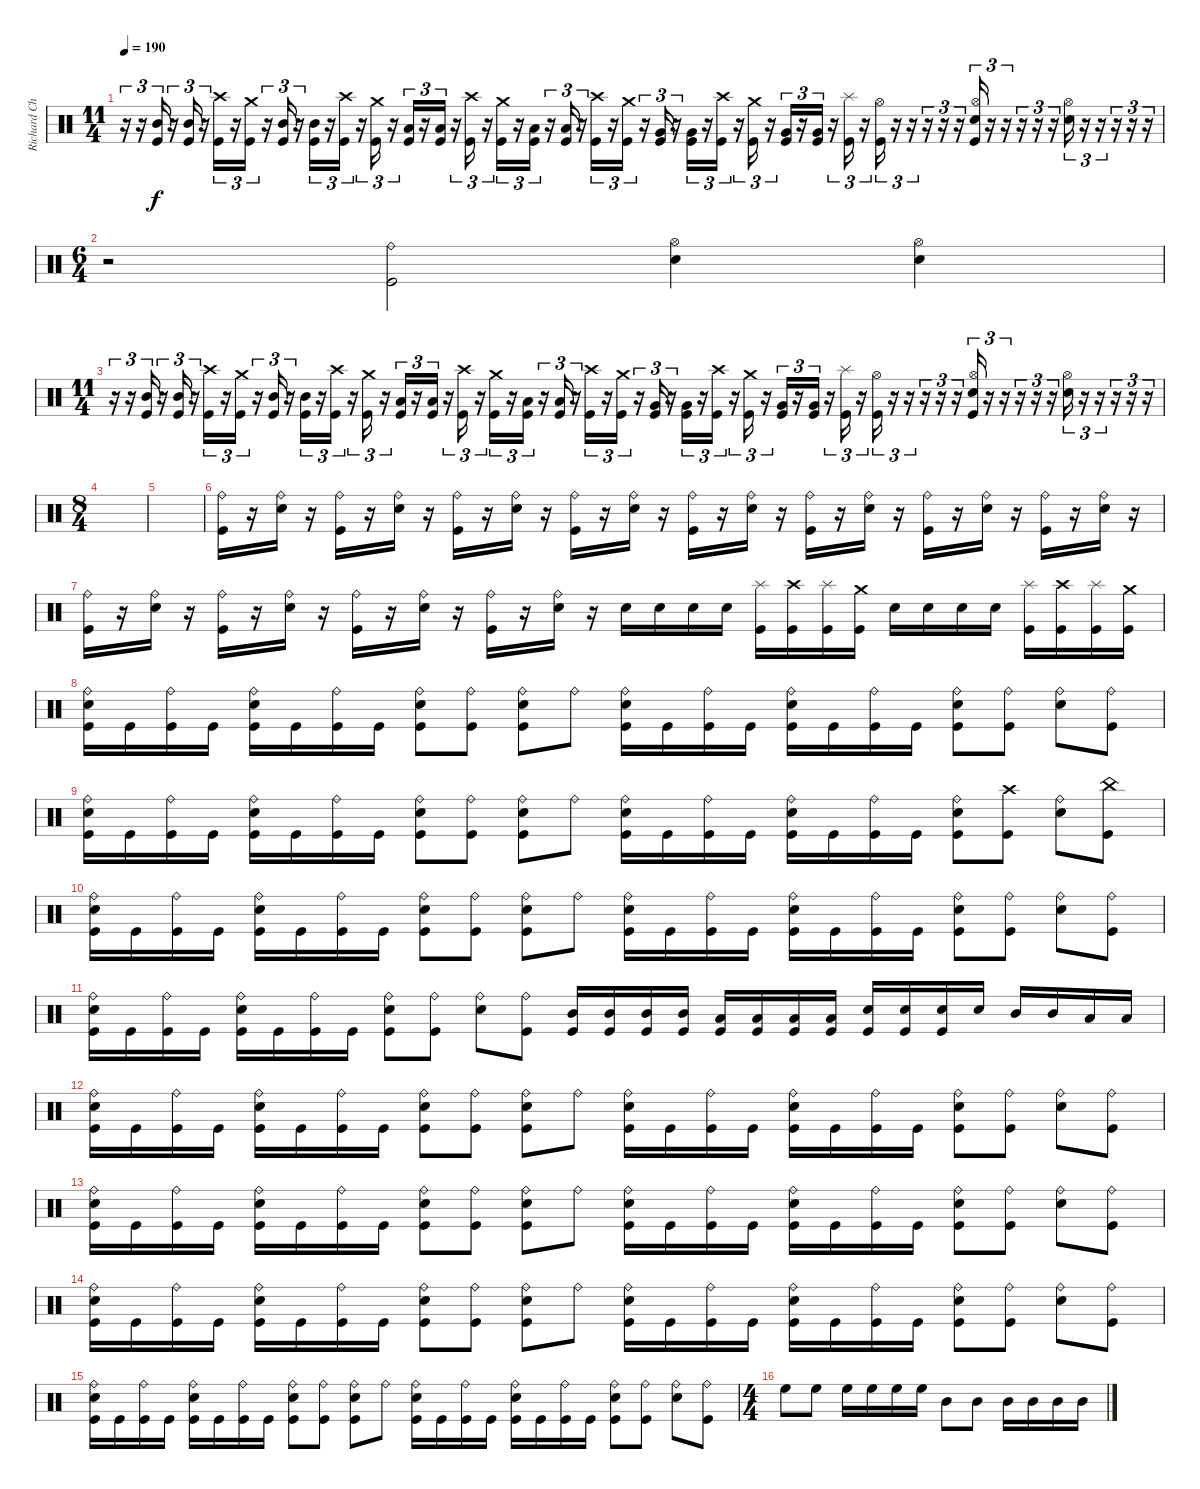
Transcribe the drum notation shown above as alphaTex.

\track ("Richard Christy" "Richard Ch") {instrument percussion}
\staff {score}
\articulation defaults
\ts (11 4)
\tempo 190
\clef neutral
\ks c
r.16{tu (3 2) dy f} r.16{tu (3 2)} ("Mid Tom (hit)" "Kick (hit)").16{tu (3 2)} r.16{tu (3 2)} ("Mid Tom (hit)" "Kick (hit)").16{tu (3 2)} r.16{tu (3 2)} ("Crash high (hit)" "Kick (hit)").16{tu (3 2)} r.16{tu (3 2)} ("Crash medium (hit)" "Kick (hit)").16{tu (3 2)} r.16{tu (3 2)} ("Mid Tom (hit)" "Kick (hit)").16{tu (3 2)} r.16{tu (3 2)} ("Mid Tom (hit)" "Kick (hit)").16{tu (3 2)} r.16{tu (3 2)} ("Crash high (hit)" "Kick (hit)").16{tu (3 2)} r.16{tu (3 2)} ("Crash medium (hit)" "Kick (hit)").16{tu (3 2)} r.16{tu (3 2)} ("Low Tom (hit)" "Kick (hit)").16{tu (3 2)} r.16{tu (3 2)} ("Low Tom (hit)" "Kick (hit)").16{tu (3 2)} r.16{tu (3 2)} ("Crash high (hit)" "Kick (hit)").16{tu (3 2)} r.16{tu (3 2)} ("Crash medium (hit)" "Kick (hit)").16{tu (3 2)} r.16{tu (3 2)} ("Low Tom (hit)" "Kick (hit)").16{tu (3 2)} r.16{tu (3 2)} ("Low Tom (hit)" "Kick (hit)").16{tu (3 2)} r.16{tu (3 2)} ("Crash high (hit)" "Kick (hit)").16{tu (3 2)} r.16{tu (3 2)} ("Crash medium (hit)" "Kick (hit)").16{tu (3 2)} r.16{tu (3 2)} ("Very Low Tom (hit)" "Kick (hit)").16{tu (3 2)} r.16{tu (3 2)} ("Very Low Tom (hit)" "Kick (hit)").16{tu (3 2)} r.16{tu (3 2)} ("Crash high (hit)" "Kick (hit)").16{tu (3 2)} r.16{tu (3 2)} ("Crash medium (hit)" "Kick (hit)").16{tu (3 2)} r.16{tu (3 2)} ("Very Low Tom (hit)" "Kick (hit)").16{tu (3 2)} r.16{tu (3 2)} ("Very Low Tom (hit)" "Kick (hit)").16{tu (3 2)} r.16{tu (3 2)} ("Splash (hit)" "Kick (hit)").16{tu (3 2)} r.16{tu (3 2)} ("Hi-Hat (open)" "Kick (hit)").16{tu (3 2)} r.16{tu (3 2)} r.16{tu (3 2)} r.16{tu (3 2)} r.16{tu (3 2)} r.16{tu (3 2)} ("Hi-Hat (open)" "Snare (hit) 2" "Kick (hit)").16{tu (3 2)} r.16{tu (3 2)} r.16{tu (3 2)} r.16{tu (3 2)} r.16{tu (3 2)} r.16{tu (3 2)} ("Hi-Hat (open)" "Snare (hit) 2").16{tu (3 2)} r.16{tu (3 2)} r.16{tu (3 2)} r.16{tu (3 2)} r.16{tu (3 2)} r.16{tu (3 2)} |
\ts (6 4)
r.2 ("Ride (bell)" "Kick (hit)").2 ("Hi-Hat (open)" "Snare (hit) 2").4 ("Hi-Hat (open)" "Snare (hit) 2").4 |
\ts (11 4)
r.16{tu (3 2)} r.16{tu (3 2)} ("Mid Tom (hit)" "Kick (hit)").16{tu (3 2)} r.16{tu (3 2)} ("Mid Tom (hit)" "Kick (hit)").16{tu (3 2)} r.16{tu (3 2)} ("Crash high (hit)" "Kick (hit)").16{tu (3 2)} r.16{tu (3 2)} ("Crash medium (hit)" "Kick (hit)").16{tu (3 2)} r.16{tu (3 2)} ("Mid Tom (hit)" "Kick (hit)").16{tu (3 2)} r.16{tu (3 2)} ("Mid Tom (hit)" "Kick (hit)").16{tu (3 2)} r.16{tu (3 2)} ("Crash high (hit)" "Kick (hit)").16{tu (3 2)} r.16{tu (3 2)} ("Crash medium (hit)" "Kick (hit)").16{tu (3 2)} r.16{tu (3 2)} ("Low Tom (hit)" "Kick (hit)").16{tu (3 2)} r.16{tu (3 2)} ("Low Tom (hit)" "Kick (hit)").16{tu (3 2)} r.16{tu (3 2)} ("Crash high (hit)" "Kick (hit)").16{tu (3 2)} r.16{tu (3 2)} ("Crash medium (hit)" "Kick (hit)").16{tu (3 2)} r.16{tu (3 2)} ("Low Tom (hit)" "Kick (hit)").16{tu (3 2)} r.16{tu (3 2)} ("Low Tom (hit)" "Kick (hit)").16{tu (3 2)} r.16{tu (3 2)} ("Crash high (hit)" "Kick (hit)").16{tu (3 2)} r.16{tu (3 2)} ("Crash medium (hit)" "Kick (hit)").16{tu (3 2)} r.16{tu (3 2)} ("Very Low Tom (hit)" "Kick (hit)").16{tu (3 2)} r.16{tu (3 2)} ("Very Low Tom (hit)" "Kick (hit)").16{tu (3 2)} r.16{tu (3 2)} ("Crash high (hit)" "Kick (hit)").16{tu (3 2)} r.16{tu (3 2)} ("Crash medium (hit)" "Kick (hit)").16{tu (3 2)} r.16{tu (3 2)} ("Very Low Tom (hit)" "Kick (hit)").16{tu (3 2)} r.16{tu (3 2)} ("Very Low Tom (hit)" "Kick (hit)").16{tu (3 2)} r.16{tu (3 2)} ("Splash (hit)" "Kick (hit)").16{tu (3 2)} r.16{tu (3 2)} ("Hi-Hat (open)" "Kick (hit)").16{tu (3 2)} r.16{tu (3 2)} r.16{tu (3 2)} r.16{tu (3 2)} r.16{tu (3 2)} r.16{tu (3 2)} ("Hi-Hat (open)" "Snare (hit) 2" "Kick (hit)").16{tu (3 2)} r.16{tu (3 2)} r.16{tu (3 2)} r.16{tu (3 2)} r.16{tu (3 2)} r.16{tu (3 2)} ("Hi-Hat (open)" "Snare (hit) 2").16{tu (3 2)} r.16{tu (3 2)} r.16{tu (3 2)} r.16{tu (3 2)} r.16{tu (3 2)} r.16{tu (3 2)} |
\ts (8 4)
|
|
("Ride (bell)" "Kick (hit)").16 r.16 ("Ride (bell)" "Snare (hit) 2").16 r.16 ("Ride (bell)" "Kick (hit)").16 r.16 ("Ride (bell)" "Snare (hit) 2").16 r.16 ("Ride (bell)" "Kick (hit)").16 r.16 ("Ride (bell)" "Snare (hit) 2").16 r.16 ("Ride (bell)" "Kick (hit)").16 r.16 ("Ride (bell)" "Snare (hit) 2").16 r.16 ("Ride (bell)" "Kick (hit)").16 r.16 ("Ride (bell)" "Snare (hit) 2").16 r.16 ("Ride (bell)" "Kick (hit)").16 r.16 ("Ride (bell)" "Snare (hit) 2").16 r.16 ("Ride (bell)" "Kick (hit)").16 r.16 ("Ride (bell)" "Snare (hit) 2").16 r.16 ("Ride (bell)" "Kick (hit)").16 r.16 ("Ride (bell)" "Snare (hit) 2").16 r.16 |
("Ride (bell)" "Kick (hit)").16 r.16 ("Ride (bell)" "Snare (hit) 2").16 r.16 ("Ride (bell)" "Kick (hit)").16 r.16 ("Ride (bell)" "Snare (hit) 2").16 r.16 ("Ride (bell)" "Kick (hit)").16 r.16 ("Ride (bell)" "Snare (hit) 2").16 r.16 ("Ride (bell)" "Kick (hit)").16 r.16 ("Ride (bell)" "Snare (hit) 2").16 r.16 "Snare (hit) 2".16 "Snare (hit) 2".16 "Snare (hit) 2".16 "Snare (hit) 2".16 ("Splash (hit)" "Kick (hit)").16 ("Crash high (hit)" "Kick (hit)").16 ("Splash (hit)" "Kick (hit)").16 ("Crash medium (hit)" "Kick (hit)").16 "Snare (hit) 2".16 "Snare (hit) 2".16 "Snare (hit) 2".16 "Snare (hit) 2".16 ("Splash (hit)" "Kick (hit)").16 ("Crash high (hit)" "Kick (hit)").16 ("Splash (hit)" "Kick (hit)").16 ("Crash medium (hit)" "Kick (hit)").16 |
("Ride (bell)" "Snare (hit) 2" "Kick (hit)").16 "Kick (hit)".16 ("Ride (bell)" "Kick (hit)").16 "Kick (hit)".16 ("Ride (bell)" "Snare (hit) 2" "Kick (hit)").16 "Kick (hit)".16 ("Ride (bell)" "Kick (hit)").16 "Kick (hit)".16 ("Ride (bell)" "Snare (hit) 2" "Kick (hit)").8 ("Ride (bell)" "Kick (hit)").8 ("Ride (bell)" "Snare (hit) 2" "Kick (hit)").8 "Ride (bell)".8 ("Ride (bell)" "Snare (hit) 2" "Kick (hit)").16 "Kick (hit)".16 ("Ride (bell)" "Kick (hit)").16 "Kick (hit)".16 ("Ride (bell)" "Snare (hit) 2" "Kick (hit)").16 "Kick (hit)".16 ("Ride (bell)" "Kick (hit)").16 "Kick (hit)".16 ("Ride (bell)" "Snare (hit) 2" "Kick (hit)").8 ("Ride (bell)" "Kick (hit)").8 ("Ride (bell)" "Snare (hit) 2").8 ("Ride (bell)" "Kick (hit)").8 |
("Ride (bell)" "Snare (hit) 2" "Kick (hit)").16 "Kick (hit)".16 ("Ride (bell)" "Kick (hit)").16 "Kick (hit)".16 ("Ride (bell)" "Snare (hit) 2" "Kick (hit)").16 "Kick (hit)".16 ("Ride (bell)" "Kick (hit)").16 "Kick (hit)".16 ("Ride (bell)" "Snare (hit) 2" "Kick (hit)").8 ("Ride (bell)" "Kick (hit)").8 ("Ride (bell)" "Snare (hit) 2" "Kick (hit)").8 "Ride (bell)".8 ("Ride (bell)" "Snare (hit) 2" "Kick (hit)").16 "Kick (hit)".16 ("Ride (bell)" "Kick (hit)").16 "Kick (hit)".16 ("Ride (bell)" "Snare (hit) 2" "Kick (hit)").16 "Kick (hit)".16 ("Ride (bell)" "Kick (hit)").16 "Kick (hit)".16 ("Ride (bell)" "Snare (hit) 2" "Kick (hit)").8 ("Crash high (hit)" "Kick (hit)").8 ("Ride (bell)" "Snare (hit) 2").8 ("China (hit)" "Kick (hit)").8 |
("Ride (bell)" "Snare (hit) 2" "Kick (hit)").16 "Kick (hit)".16 ("Ride (bell)" "Kick (hit)").16 "Kick (hit)".16 ("Ride (bell)" "Snare (hit) 2" "Kick (hit)").16 "Kick (hit)".16 ("Ride (bell)" "Kick (hit)").16 "Kick (hit)".16 ("Ride (bell)" "Snare (hit) 2" "Kick (hit)").8 ("Ride (bell)" "Kick (hit)").8 ("Ride (bell)" "Snare (hit) 2" "Kick (hit)").8 "Ride (bell)".8 ("Ride (bell)" "Snare (hit) 2" "Kick (hit)").16 "Kick (hit)".16 ("Ride (bell)" "Kick (hit)").16 "Kick (hit)".16 ("Ride (bell)" "Snare (hit) 2" "Kick (hit)").16 "Kick (hit)".16 ("Ride (bell)" "Kick (hit)").16 "Kick (hit)".16 ("Ride (bell)" "Snare (hit) 2" "Kick (hit)").8 ("Ride (bell)" "Kick (hit)").8 ("Ride (bell)" "Snare (hit) 2").8 ("Ride (bell)" "Kick (hit)").8 |
("Ride (bell)" "Snare (hit) 2" "Kick (hit)").16 "Kick (hit)".16 ("Ride (bell)" "Kick (hit)").16 "Kick (hit)".16 ("Ride (bell)" "Snare (hit) 2" "Kick (hit)").16 "Kick (hit)".16 ("Ride (bell)" "Kick (hit)").16 "Kick (hit)".16 ("Ride (bell)" "Snare (hit) 2" "Kick (hit)").8 ("Ride (bell)" "Kick (hit)").8 ("Ride (bell)" "Snare (hit) 2").8 ("Ride (bell)" "Kick (hit)").8 ("Mid Tom (hit)" "Kick (hit)").16 ("Mid Tom (hit)" "Kick (hit)").16 ("Mid Tom (hit)" "Kick (hit)").16 ("Mid Tom (hit)" "Kick (hit)").16 ("Low Tom (hit)" "Kick (hit)").16 ("Low Tom (hit)" "Kick (hit)").16 ("Low Tom (hit)" "Kick (hit)").16 ("Low Tom (hit)" "Kick (hit)").16 ("Snare (hit) 2" "Kick (hit)").16 ("Snare (hit) 2" "Kick (hit)").16 ("Snare (hit) 2" "Kick (hit)").16 "Snare (hit) 2".16 "Mid Tom (hit)".16 "Mid Tom (hit)".16 "Low Tom (hit)".16 "Low Tom (hit)".16 |
("Ride (bell)" "Snare (hit) 2" "Kick (hit)").16 "Kick (hit)".16 ("Ride (bell)" "Kick (hit)").16 "Kick (hit)".16 ("Ride (bell)" "Snare (hit) 2" "Kick (hit)").16 "Kick (hit)".16 ("Ride (bell)" "Kick (hit)").16 "Kick (hit)".16 ("Ride (bell)" "Snare (hit) 2" "Kick (hit)").8 ("Ride (bell)" "Kick (hit)").8 ("Ride (bell)" "Snare (hit) 2" "Kick (hit)").8 "Ride (bell)".8 ("Ride (bell)" "Snare (hit) 2" "Kick (hit)").16 "Kick (hit)".16 ("Ride (bell)" "Kick (hit)").16 "Kick (hit)".16 ("Ride (bell)" "Snare (hit) 2" "Kick (hit)").16 "Kick (hit)".16 ("Ride (bell)" "Kick (hit)").16 "Kick (hit)".16 ("Ride (bell)" "Snare (hit) 2" "Kick (hit)").8 ("Ride (bell)" "Kick (hit)").8 ("Ride (bell)" "Snare (hit) 2").8 ("Ride (bell)" "Kick (hit)").8 |
("Ride (bell)" "Snare (hit) 2" "Kick (hit)").16 "Kick (hit)".16 ("Ride (bell)" "Kick (hit)").16 "Kick (hit)".16 ("Ride (bell)" "Snare (hit) 2" "Kick (hit)").16 "Kick (hit)".16 ("Ride (bell)" "Kick (hit)").16 "Kick (hit)".16 ("Ride (bell)" "Snare (hit) 2" "Kick (hit)").8 ("Ride (bell)" "Kick (hit)").8 ("Ride (bell)" "Snare (hit) 2" "Kick (hit)").8 "Ride (bell)".8 ("Ride (bell)" "Snare (hit) 2" "Kick (hit)").16 "Kick (hit)".16 ("Ride (bell)" "Kick (hit)").16 "Kick (hit)".16 ("Ride (bell)" "Snare (hit) 2" "Kick (hit)").16 "Kick (hit)".16 ("Ride (bell)" "Kick (hit)").16 "Kick (hit)".16 ("Ride (bell)" "Snare (hit) 2" "Kick (hit)").8 ("Ride (bell)" "Kick (hit)").8 ("Ride (bell)" "Snare (hit) 2").8 ("Ride (bell)" "Kick (hit)").8 |
("Ride (bell)" "Snare (hit) 2" "Kick (hit)").16 "Kick (hit)".16 ("Ride (bell)" "Kick (hit)").16 "Kick (hit)".16 ("Ride (bell)" "Snare (hit) 2" "Kick (hit)").16 "Kick (hit)".16 ("Ride (bell)" "Kick (hit)").16 "Kick (hit)".16 ("Ride (bell)" "Snare (hit) 2" "Kick (hit)").8 ("Ride (bell)" "Kick (hit)").8 ("Ride (bell)" "Snare (hit) 2" "Kick (hit)").8 "Ride (bell)".8 ("Ride (bell)" "Snare (hit) 2" "Kick (hit)").16 "Kick (hit)".16 ("Ride (bell)" "Kick (hit)").16 "Kick (hit)".16 ("Ride (bell)" "Snare (hit) 2" "Kick (hit)").16 "Kick (hit)".16 ("Ride (bell)" "Kick (hit)").16 "Kick (hit)".16 ("Ride (bell)" "Snare (hit) 2" "Kick (hit)").8 ("Ride (bell)" "Kick (hit)").8 ("Ride (bell)" "Snare (hit) 2").8 ("Ride (bell)" "Kick (hit)").8 |
("Ride (bell)" "Snare (hit) 2" "Kick (hit)").16 "Kick (hit)".16 ("Ride (bell)" "Kick (hit)").16 "Kick (hit)".16 ("Ride (bell)" "Snare (hit) 2" "Kick (hit)").16 "Kick (hit)".16 ("Ride (bell)" "Kick (hit)").16 "Kick (hit)".16 ("Ride (bell)" "Snare (hit) 2" "Kick (hit)").8 ("Ride (bell)" "Kick (hit)").8 ("Ride (bell)" "Snare (hit) 2" "Kick (hit)").8 "Ride (bell)".8 ("Ride (bell)" "Snare (hit) 2" "Kick (hit)").16 "Kick (hit)".16 ("Ride (bell)" "Kick (hit)").16 "Kick (hit)".16 ("Ride (bell)" "Snare (hit) 2" "Kick (hit)").16 "Kick (hit)".16 ("Ride (bell)" "Kick (hit)").16 "Kick (hit)".16 ("Ride (bell)" "Snare (hit) 2" "Kick (hit)").8 ("Ride (bell)" "Kick (hit)").8 ("Ride (bell)" "Snare (hit) 2").8 ("Ride (bell)" "Kick (hit)").8 |
\ts (4 4)
"High Floor Tom (hit)".8 "High Floor Tom (hit)".8 "High Floor Tom (hit)".16 "High Floor Tom (hit)".16 "High Floor Tom (hit)".16 "High Floor Tom (hit)".16 "Mid Tom (hit)".8 "Mid Tom (hit)".8 "Mid Tom (hit)".16 "Mid Tom (hit)".16 "Mid Tom (hit)".16 "Mid Tom (hit)".16
